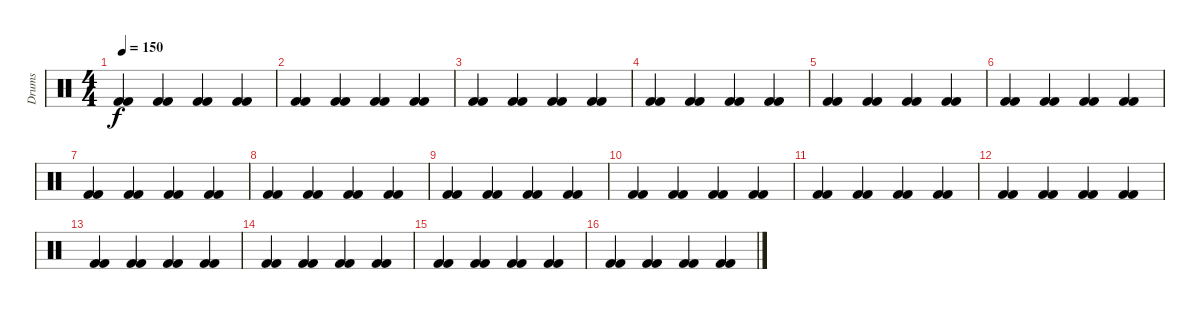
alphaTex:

\track ("Drums" "Drums") {instrument percussion}
\staff {score}
\articulation defaults
\ts (4 4)
\tempo 150
\clef neutral
\ks c
("Kick (hit) 2" "Kick (hit) 2").4{dy f} ("Kick (hit) 2" "Kick (hit) 2").4 ("Kick (hit) 2" "Kick (hit) 2").4 ("Kick (hit) 2" "Kick (hit) 2").4 |
("Kick (hit) 2" "Kick (hit) 2").4 ("Kick (hit) 2" "Kick (hit) 2").4 ("Kick (hit) 2" "Kick (hit) 2").4 ("Kick (hit) 2" "Kick (hit) 2").4 |
("Kick (hit) 2" "Kick (hit) 2").4 ("Kick (hit) 2" "Kick (hit) 2").4 ("Kick (hit) 2" "Kick (hit) 2").4 ("Kick (hit) 2" "Kick (hit) 2").4 |
("Kick (hit) 2" "Kick (hit) 2").4 ("Kick (hit) 2" "Kick (hit) 2").4 ("Kick (hit) 2" "Kick (hit) 2").4 ("Kick (hit) 2" "Kick (hit) 2").4 |
("Kick (hit) 2" "Kick (hit) 2").4 ("Kick (hit) 2" "Kick (hit) 2").4 ("Kick (hit) 2" "Kick (hit) 2").4 ("Kick (hit) 2" "Kick (hit) 2").4 |
("Kick (hit) 2" "Kick (hit) 2").4 ("Kick (hit) 2" "Kick (hit) 2").4 ("Kick (hit) 2" "Kick (hit) 2").4 ("Kick (hit) 2" "Kick (hit) 2").4 |
("Kick (hit) 2" "Kick (hit) 2").4 ("Kick (hit) 2" "Kick (hit) 2").4 ("Kick (hit) 2" "Kick (hit) 2").4 ("Kick (hit) 2" "Kick (hit) 2").4 |
("Kick (hit) 2" "Kick (hit) 2").4 ("Kick (hit) 2" "Kick (hit) 2").4 ("Kick (hit) 2" "Kick (hit) 2").4 ("Kick (hit) 2" "Kick (hit) 2").4 |
("Kick (hit) 2" "Kick (hit) 2").4 ("Kick (hit) 2" "Kick (hit) 2").4 ("Kick (hit) 2" "Kick (hit) 2").4 ("Kick (hit) 2" "Kick (hit) 2").4 |
("Kick (hit) 2" "Kick (hit) 2").4 ("Kick (hit) 2" "Kick (hit) 2").4 ("Kick (hit) 2" "Kick (hit) 2").4 ("Kick (hit) 2" "Kick (hit) 2").4 |
("Kick (hit) 2" "Kick (hit) 2").4 ("Kick (hit) 2" "Kick (hit) 2").4 ("Kick (hit) 2" "Kick (hit) 2").4 ("Kick (hit) 2" "Kick (hit) 2").4 |
("Kick (hit) 2" "Kick (hit) 2").4 ("Kick (hit) 2" "Kick (hit) 2").4 ("Kick (hit) 2" "Kick (hit) 2").4 ("Kick (hit) 2" "Kick (hit) 2").4 |
("Kick (hit) 2" "Kick (hit) 2").4 ("Kick (hit) 2" "Kick (hit) 2").4 ("Kick (hit) 2" "Kick (hit) 2").4 ("Kick (hit) 2" "Kick (hit) 2").4 |
("Kick (hit) 2" "Kick (hit) 2").4 ("Kick (hit) 2" "Kick (hit) 2").4 ("Kick (hit) 2" "Kick (hit) 2").4 ("Kick (hit) 2" "Kick (hit) 2").4 |
("Kick (hit) 2" "Kick (hit) 2").4 ("Kick (hit) 2" "Kick (hit) 2").4 ("Kick (hit) 2" "Kick (hit) 2").4 ("Kick (hit) 2" "Kick (hit) 2").4 |
("Kick (hit) 2" "Kick (hit) 2").4 ("Kick (hit) 2" "Kick (hit) 2").4 ("Kick (hit) 2" "Kick (hit) 2").4 ("Kick (hit) 2" "Kick (hit) 2").4
